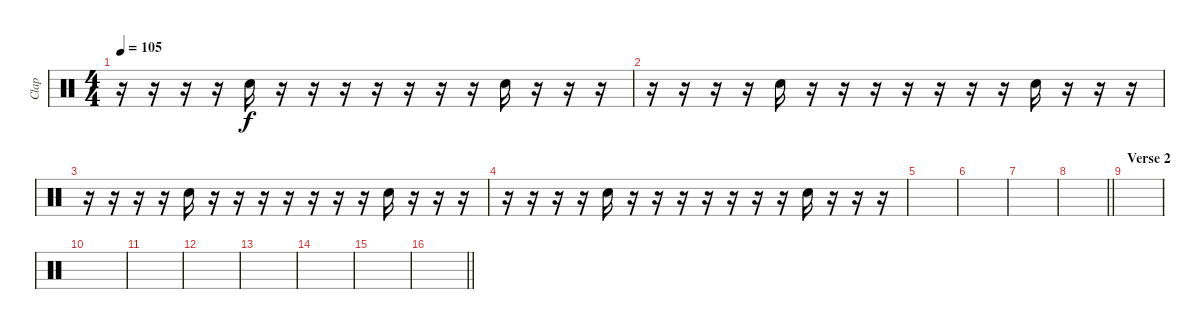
\track ("Clap" "Clap") {instrument percussion}
\staff {score}
\articulation defaults
\ts (4 4)
\tempo 105
\clef neutral
\ks c
r.16{dy f} r.16 r.16 r.16 "Hand Clap (hit)".16 r.16 r.16 r.16 r.16 r.16 r.16 r.16 "Hand Clap (hit)".16 r.16 r.16 r.16 |
r.16 r.16 r.16 r.16 "Hand Clap (hit)".16 r.16 r.16 r.16 r.16 r.16 r.16 r.16 "Hand Clap (hit)".16 r.16 r.16 r.16 |
r.16 r.16 r.16 r.16 "Hand Clap (hit)".16 r.16 r.16 r.16 r.16 r.16 r.16 r.16 "Hand Clap (hit)".16 r.16 r.16 r.16 |
r.16 r.16 r.16 r.16 "Hand Clap (hit)".16 r.16 r.16 r.16 r.16 r.16 r.16 r.16 "Hand Clap (hit)".16 r.16 r.16 r.16 |
|
|
|
\barLineRight lightlight
|
\section ("" "Verse 2")
|
|
|
|
|
|
|
\barLineRight lightlight
